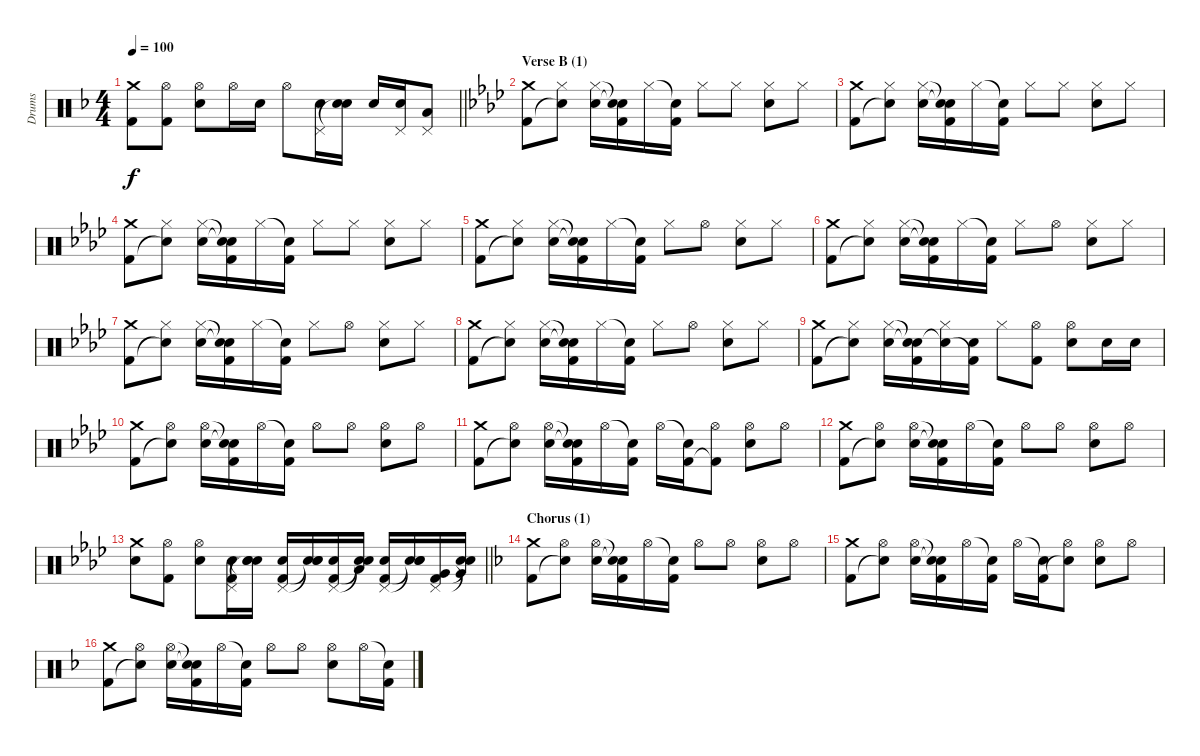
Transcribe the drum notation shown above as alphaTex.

\track ("Drums" "Drums") {instrument percussion}
\staff {score}
\articulation defaults
\ts (4 4)
\tempo 100
\clef neutral
\barLineRight lightlight
\ks dminor
("Crash medium (hit)" "Kick (hit) 2").8{dy f} ("Hi-Hat (open)" "Kick (hit) 2").8 ("Hi-Hat (open)" "Electric Snare (hit)").8 "Hi-Hat (open)".16 "Electric Snare (hit)".16 "Hi-Hat (open)".8 ("Pedal Hi-Hat (hit)" "Electric Snare (hit)").16 ("Snare (hit)"{t} "Electric Snare (hit)").16 "Electric Snare (hit)".16 ("Pedal Hi-Hat (hit)" "Electric Snare (hit)").16 ("Pedal Hi-Hat (hit)" "Low Floor Tom (hit)").8 |
\section ("" "Verse B (1)")
\ks ab
("Crash medium (hit)" "Kick (hit) 2").8 ("Hi-Hat (closed)" "Snare (hit)"{t}).8 ("Hi-Hat (closed)" "Electric Snare (hit)").16 ("Snare (hit)"{t} "Snare (hit)"{t} "Kick (hit) 2").16 "Hi-Hat (closed)".16 ("Snare (hit)"{t} "Kick (hit) 2").16 "Hi-Hat (closed)".8 "Hi-Hat (closed)".8 ("Hi-Hat (closed)" "Electric Snare (hit)").8 "Hi-Hat (closed)".8 |
("Crash medium (hit)" "Kick (hit) 2").8 ("Hi-Hat (closed)" "Snare (hit)"{t}).8 ("Hi-Hat (closed)" "Electric Snare (hit)").16 ("Snare (hit)"{t} "Snare (hit)"{t} "Kick (hit) 2").16 "Hi-Hat (closed)".16 ("Snare (hit)"{t} "Kick (hit) 2").16 "Hi-Hat (closed)".8 "Hi-Hat (closed)".8 ("Hi-Hat (closed)" "Electric Snare (hit)").8 "Hi-Hat (closed)".8 |
("Crash medium (hit)" "Kick (hit) 2").8 ("Hi-Hat (closed)" "Snare (hit)"{t}).8 ("Hi-Hat (closed)" "Electric Snare (hit)").16 ("Snare (hit)"{t} "Snare (hit)"{t} "Kick (hit) 2").16 "Hi-Hat (closed)".16 ("Snare (hit)"{t} "Kick (hit) 2").16 "Hi-Hat (closed)".8 "Hi-Hat (closed)".8 ("Hi-Hat (closed)" "Electric Snare (hit)").8 "Hi-Hat (closed)".8 |
("Crash medium (hit)" "Kick (hit) 2").8 ("Hi-Hat (closed)" "Snare (hit)"{t}).8 ("Hi-Hat (closed)" "Electric Snare (hit)").16 ("Snare (hit)"{t} "Snare (hit)"{t} "Kick (hit) 2").16 "Hi-Hat (closed)".16 ("Snare (hit)"{t} "Kick (hit) 2").16 "Hi-Hat (closed)".8 "Hi-Hat (open)".8 ("Hi-Hat (closed)" "Electric Snare (hit)").8 "Hi-Hat (closed)".8 |
("Crash medium (hit)" "Kick (hit) 2").8 ("Hi-Hat (closed)" "Snare (hit)"{t}).8 ("Hi-Hat (closed)" "Electric Snare (hit)").16 ("Snare (hit)"{t} "Snare (hit)"{t} "Kick (hit) 2").16 "Hi-Hat (closed)".16 ("Snare (hit)"{t} "Kick (hit) 2").16 "Hi-Hat (closed)".8 "Hi-Hat (open)".8 ("Hi-Hat (closed)" "Electric Snare (hit)").8 "Hi-Hat (closed)".8 |
("Crash medium (hit)" "Kick (hit) 2").8 ("Hi-Hat (closed)" "Snare (hit)"{t}).8 ("Hi-Hat (closed)" "Electric Snare (hit)").16 ("Snare (hit)"{t} "Snare (hit)"{t} "Kick (hit) 2").16 "Hi-Hat (closed)".16 ("Snare (hit)"{t} "Kick (hit) 2").16 "Hi-Hat (closed)".8 "Hi-Hat (open)".8 ("Hi-Hat (closed)" "Electric Snare (hit)").8 "Hi-Hat (closed)".8 |
("Crash medium (hit)" "Kick (hit) 2").8 ("Hi-Hat (closed)" "Snare (hit)"{t}).8 ("Hi-Hat (closed)" "Electric Snare (hit)").16 ("Snare (hit)"{t} "Snare (hit)"{t} "Kick (hit) 2").16 "Hi-Hat (closed)".16 ("Snare (hit)"{t} "Kick (hit) 2").16 "Hi-Hat (closed)".8 "Hi-Hat (open)".8 ("Hi-Hat (closed)" "Electric Snare (hit)").8 "Hi-Hat (closed)".8 |
("Crash medium (hit)" "Kick (hit) 2").8 ("Hi-Hat (closed)" "Snare (hit)"{t}).8 ("Hi-Hat (closed)" "Electric Snare (hit)").16 ("Snare (hit)"{t} "Snare (hit)"{t} "Kick (hit) 2").16 ("Hi-Hat (closed)" "Snare (hit)"{t}).16 ("Electric Snare (hit)" "Kick (hit) 2"{t}).16 "Hi-Hat (closed)".8 ("Hi-Hat (open)" "Kick (hit) 2").8 ("Hi-Hat (open)" "Electric Snare (hit)").8 "Electric Snare (hit)".16 "Electric Snare (hit)".16 |
("Crash medium (hit)" "Kick (hit) 2").8 ("Hi-Hat (open)" "Snare (hit)"{t}).8 ("Hi-Hat (open)" "Electric Snare (hit)").16 ("Snare (hit)"{t} "Snare (hit)"{t} "Kick (hit) 2").16 "Hi-Hat (open)".16 ("Snare (hit)"{t} "Kick (hit) 2").16 "Hi-Hat (open)".8 "Hi-Hat (open)".8 ("Hi-Hat (open)" "Electric Snare (hit)").8 "Hi-Hat (open)".8 |
("Crash medium (hit)" "Kick (hit) 2").8 ("Hi-Hat (open)" "Snare (hit)"{t}).8 ("Hi-Hat (open)" "Electric Snare (hit)").16 ("Snare (hit)"{t} "Snare (hit)"{t} "Kick (hit) 2").16 "Hi-Hat (open)".16 ("Snare (hit)"{t} "Kick (hit) 2").16 "Hi-Hat (open)".16 ("Snare (hit)"{t} "Kick (hit) 2").16 ("Hi-Hat (open)" "Kick (hit) 2"{t}).8 ("Hi-Hat (open)" "Electric Snare (hit)").8 "Hi-Hat (open)".8 |
("Crash medium (hit)" "Kick (hit) 2").8 ("Hi-Hat (open)" "Snare (hit)"{t}).8 ("Hi-Hat (open)" "Electric Snare (hit)").16 ("Snare (hit)"{t} "Snare (hit)"{t} "Kick (hit) 2").16 "Hi-Hat (open)".16 ("Snare (hit)"{t} "Kick (hit) 2").16 "Hi-Hat (open)".8 "Hi-Hat (open)".8 ("Hi-Hat (open)" "Electric Snare (hit)").8 "Hi-Hat (open)".8 |
\barLineRight lightlight
("Crash medium (hit)" "Electric Snare (hit)").8 ("Hi-Hat (open)" "Kick (hit) 2").8 ("Hi-Hat (open)" "Electric Snare (hit)").8 ("Pedal Hi-Hat (hit)" "Electric Snare (hit)" "Kick (hit) 2").16 ("Snare (hit)"{t} "Electric Snare (hit)" "Snare (hit)"{t}).16 ("Pedal Hi-Hat (hit)" "Electric Snare (hit)" "Kick (hit) 2").16 ("Snare (hit)"{t} "Electric Snare (hit)" "Snare (hit)"{t}).16 ("Pedal Hi-Hat (hit)" "Electric Snare (hit)" "Kick (hit) 2").16 ("Snare (hit)"{t} "Low Tom (hit)" "Snare (hit)"{t}).16 ("Pedal Hi-Hat (hit)" "Electric Snare (hit)" "Kick (hit) 2").16 ("Snare (hit)"{t} "Electric Snare (hit)" "Snare (hit)"{t}).16 ("Pedal Hi-Hat (hit)" "Very Low Tom (hit)" "Kick (hit) 2").16 ("Snare (hit)"{t} "Very Low Tom (hit)" "Snare (hit)"{t}).16 |
\section ("" "Chorus (1)")
\ks dminor
("Crash medium (hit)" "Kick (hit) 2").8 ("Hi-Hat (open)" "Snare (hit)"{t}).8 ("Hi-Hat (open)" "Electric Snare (hit)").16 ("Snare (hit)"{t} "Snare (hit)"{t} "Kick (hit) 2").16 "Hi-Hat (open)".16 ("Snare (hit)"{t} "Kick (hit) 2").16 "Hi-Hat (open)".8 "Hi-Hat (open)".8 ("Hi-Hat (open)" "Electric Snare (hit)").8 "Hi-Hat (open)".8 |
("Crash medium (hit)" "Kick (hit) 2").8 ("Hi-Hat (open)" "Snare (hit)"{t}).8 ("Hi-Hat (open)" "Electric Snare (hit)").16 ("Snare (hit)"{t} "Snare (hit)"{t} "Kick (hit) 2").16 "Hi-Hat (open)".16 ("Snare (hit)"{t} "Kick (hit) 2").16 "Hi-Hat (open)".16 ("Snare (hit)"{t} "Kick (hit) 2").16 ("Hi-Hat (open)" "Snare (hit)"{t}).8 ("Hi-Hat (open)" "Electric Snare (hit)").8 "Hi-Hat (open)".8 |
("Crash medium (hit)" "Kick (hit) 2").8 ("Hi-Hat (open)" "Snare (hit)"{t}).8 ("Hi-Hat (open)" "Electric Snare (hit)").16 ("Snare (hit)"{t} "Snare (hit)"{t} "Kick (hit) 2").16 "Hi-Hat (open)".16 ("Snare (hit)"{t} "Kick (hit) 2").16 "Hi-Hat (open)".8 "Hi-Hat (open)".8 ("Hi-Hat (open)" "Electric Snare (hit)").8 "Hi-Hat (open)".16 ("Snare (hit)"{t} "Kick (hit) 2").16
